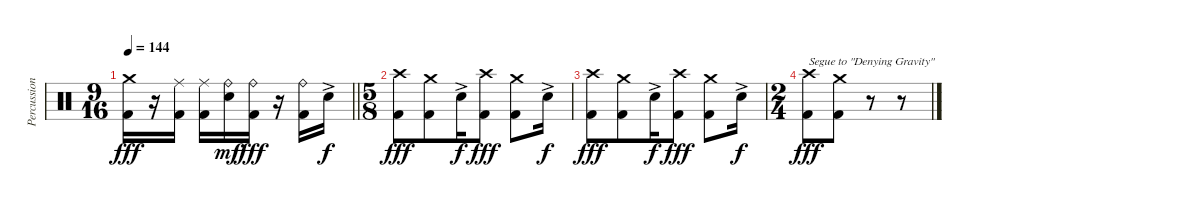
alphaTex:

\track ("Percussion" "Percussion") {instrument percussion}
\staff {score}
\articulation defaults
\ts (9 16)
\tempo 144
\clef neutral
\barLineRight lightlight
\ks c
("Crash medium (hit)" "Kick (hit) 2").16{dy fff} r.16 ("Ride (middle)" "Kick (hit) 2").16 ("Ride (middle)" "Kick (hit) 2").16 ("Ride (bell)" "Electric Snare (hit)").16{dy mf} ("Ride (bell)" "Kick (hit) 2").16{dy fff} r.16 ("Ride (bell)" "Kick (hit) 2").16 "Electric Snare (hit)"{ac}.16{dy f} |
\ts (5 8)
("Crash high (hit)" "Kick (hit) 2").8{dy fff} ("Crash medium (hit)" "Kick (hit) 2").8 "Electric Snare (hit)"{ac}.16{dy f} ("Crash high (hit)" "Kick (hit) 2").8{dy fff} ("Crash medium (hit)" "Kick (hit) 2").8 "Electric Snare (hit)"{ac}.16{dy f} |
("Crash high (hit)" "Kick (hit) 2").8{dy fff} ("Crash medium (hit)" "Kick (hit) 2").8 "Electric Snare (hit)"{ac}.16{dy f} ("Crash high (hit)" "Kick (hit) 2").8{dy fff} ("Crash medium (hit)" "Kick (hit) 2").8 "Electric Snare (hit)"{ac}.16{dy f} |
\ts (2 4)
("Crash high (hit)" "Kick (hit) 2").8{txt "Segue to \"Denying Gravity\"" dy fff} ("Crash medium (hit)" "Kick (hit) 2").8 r.8 r.8
